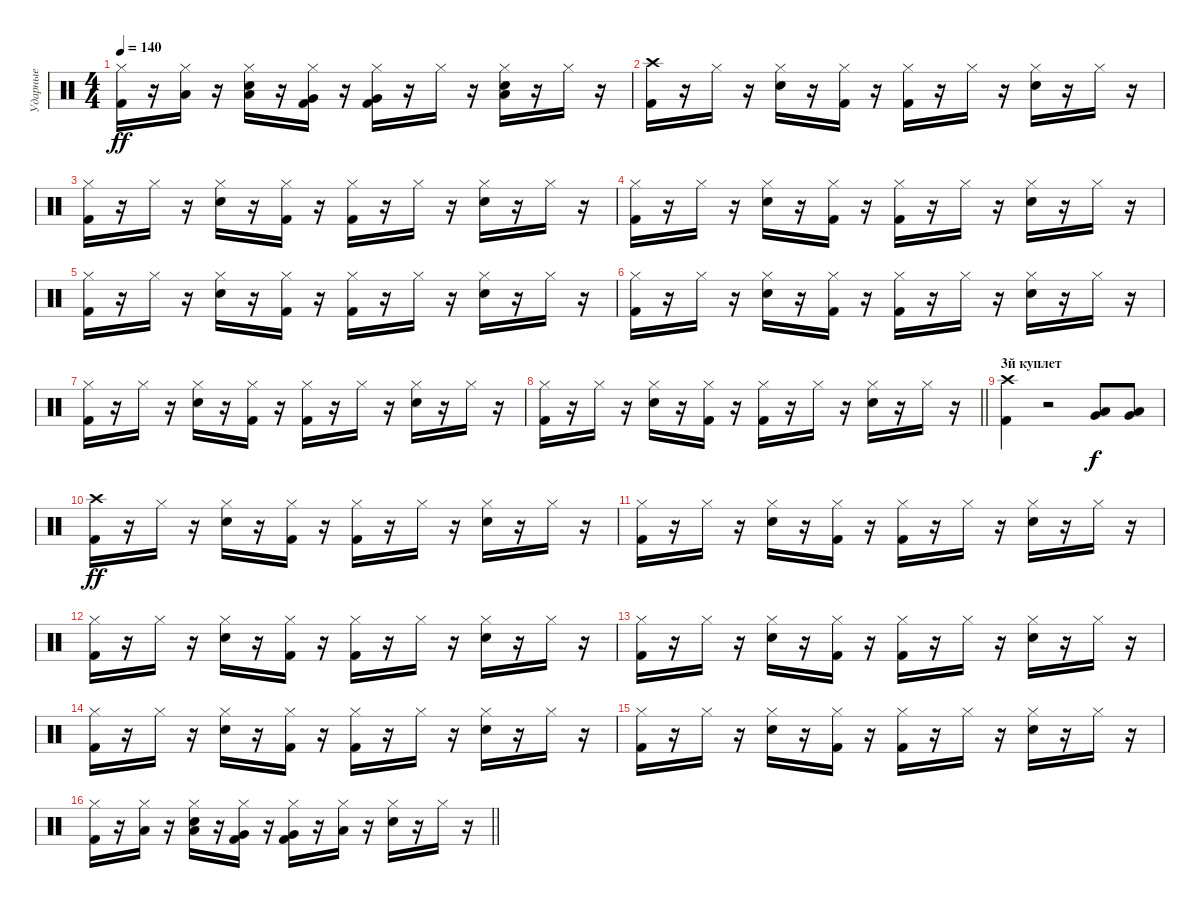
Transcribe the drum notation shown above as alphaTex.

\track ("Ударные" "Ударные") {instrument percussion}
\staff {score}
\articulation defaults
\ts (4 4)
\tempo 140
\clef neutral
\ks c
("Hi-Hat (closed)" "Kick (hit) 2").16{dy ff} r.16 ("Hi-Hat (closed)" "Low Tom (hit)").16 r.16 ("Hi-Hat (closed)" "Snare (hit) 2" "Low Tom (hit)").16 r.16 ("Hi-Hat (closed)" "Kick (hit) 2" "Very Low Tom (hit)").16 r.16 ("Hi-Hat (closed)" "Kick (hit) 2" "Very Low Tom (hit)").16 r.16 "Hi-Hat (closed)".16 r.16 ("Hi-Hat (closed)" "Snare (hit) 2" "Low Floor Tom (hit)").16 r.16 "Hi-Hat (closed)".16 r.16 |
("Crash high (hit)" "Kick (hit) 2").16 r.16 "Hi-Hat (closed)".16 r.16 ("Hi-Hat (closed)" "Snare (hit) 2").16 r.16 ("Hi-Hat (closed)" "Kick (hit) 2").16 r.16 ("Hi-Hat (closed)" "Kick (hit) 2").16 r.16 "Hi-Hat (closed)".16 r.16 ("Hi-Hat (closed)" "Snare (hit) 2").16 r.16 "Hi-Hat (closed)".16 r.16 |
("Hi-Hat (closed)" "Kick (hit) 2").16 r.16 "Hi-Hat (closed)".16 r.16 ("Hi-Hat (closed)" "Snare (hit) 2").16 r.16 ("Hi-Hat (closed)" "Kick (hit) 2").16 r.16 ("Hi-Hat (closed)" "Kick (hit) 2").16 r.16 "Hi-Hat (closed)".16 r.16 ("Hi-Hat (closed)" "Snare (hit) 2").16 r.16 "Hi-Hat (closed)".16 r.16 |
("Hi-Hat (closed)" "Kick (hit) 2").16 r.16 "Hi-Hat (closed)".16 r.16 ("Hi-Hat (closed)" "Snare (hit) 2").16 r.16 ("Hi-Hat (closed)" "Kick (hit) 2").16 r.16 ("Hi-Hat (closed)" "Kick (hit) 2").16 r.16 "Hi-Hat (closed)".16 r.16 ("Hi-Hat (closed)" "Snare (hit) 2").16 r.16 "Hi-Hat (closed)".16 r.16 |
("Hi-Hat (closed)" "Kick (hit) 2").16 r.16 "Hi-Hat (closed)".16 r.16 ("Hi-Hat (closed)" "Snare (hit) 2").16 r.16 ("Hi-Hat (closed)" "Kick (hit) 2").16 r.16 ("Hi-Hat (closed)" "Kick (hit) 2").16 r.16 "Hi-Hat (closed)".16 r.16 ("Hi-Hat (closed)" "Snare (hit) 2").16 r.16 "Hi-Hat (closed)".16 r.16 |
("Hi-Hat (closed)" "Kick (hit) 2").16 r.16 "Hi-Hat (closed)".16 r.16 ("Hi-Hat (closed)" "Snare (hit) 2").16 r.16 ("Hi-Hat (closed)" "Kick (hit) 2").16 r.16 ("Hi-Hat (closed)" "Kick (hit) 2").16 r.16 "Hi-Hat (closed)".16 r.16 ("Hi-Hat (closed)" "Snare (hit) 2").16 r.16 "Hi-Hat (closed)".16 r.16 |
("Hi-Hat (closed)" "Kick (hit) 2").16 r.16 "Hi-Hat (closed)".16 r.16 ("Hi-Hat (closed)" "Snare (hit) 2").16 r.16 ("Hi-Hat (closed)" "Kick (hit) 2").16 r.16 ("Hi-Hat (closed)" "Kick (hit) 2").16 r.16 "Hi-Hat (closed)".16 r.16 ("Hi-Hat (closed)" "Snare (hit) 2").16 r.16 "Hi-Hat (closed)".16 r.16 |
\barLineRight lightlight
("Hi-Hat (closed)" "Kick (hit) 2").16 r.16 "Hi-Hat (closed)".16 r.16 ("Hi-Hat (closed)" "Snare (hit) 2").16 r.16 ("Hi-Hat (closed)" "Kick (hit) 2").16 r.16 ("Hi-Hat (closed)" "Kick (hit) 2").16 r.16 "Hi-Hat (closed)".16 r.16 ("Hi-Hat (closed)" "Snare (hit) 2").16 r.16 "Hi-Hat (closed)".16 r.16 |
\section ("" "3й куплет")
("Crash high (hit)" "Kick (hit) 2").4 r.2 ("Very Low Tom (hit)" "Low Floor Tom (hit)").8{dy f} ("Very Low Tom (hit)" "Low Floor Tom (hit)").8 |
("Crash high (hit)" "Kick (hit) 2").16{dy ff} r.16 "Hi-Hat (closed)".16 r.16 ("Hi-Hat (closed)" "Snare (hit) 2").16 r.16 ("Hi-Hat (closed)" "Kick (hit) 2").16 r.16 ("Hi-Hat (closed)" "Kick (hit) 2").16 r.16 "Hi-Hat (closed)".16 r.16 ("Hi-Hat (closed)" "Snare (hit) 2").16 r.16 "Hi-Hat (closed)".16 r.16 |
("Hi-Hat (closed)" "Kick (hit) 2").16 r.16 "Hi-Hat (closed)".16 r.16 ("Hi-Hat (closed)" "Snare (hit) 2").16 r.16 ("Hi-Hat (closed)" "Kick (hit) 2").16 r.16 ("Hi-Hat (closed)" "Kick (hit) 2").16 r.16 "Hi-Hat (closed)".16 r.16 ("Hi-Hat (closed)" "Snare (hit) 2").16 r.16 "Hi-Hat (closed)".16 r.16 |
("Hi-Hat (closed)" "Kick (hit) 2").16 r.16 "Hi-Hat (closed)".16 r.16 ("Hi-Hat (closed)" "Snare (hit) 2").16 r.16 ("Hi-Hat (closed)" "Kick (hit) 2").16 r.16 ("Hi-Hat (closed)" "Kick (hit) 2").16 r.16 "Hi-Hat (closed)".16 r.16 ("Hi-Hat (closed)" "Snare (hit) 2").16 r.16 "Hi-Hat (closed)".16 r.16 |
("Hi-Hat (closed)" "Kick (hit) 2").16 r.16 "Hi-Hat (closed)".16 r.16 ("Hi-Hat (closed)" "Snare (hit) 2").16 r.16 ("Hi-Hat (closed)" "Kick (hit) 2").16 r.16 ("Hi-Hat (closed)" "Kick (hit) 2").16 r.16 "Hi-Hat (closed)".16 r.16 ("Hi-Hat (closed)" "Snare (hit) 2").16 r.16 "Hi-Hat (closed)".16 r.16 |
("Hi-Hat (closed)" "Kick (hit) 2").16 r.16 "Hi-Hat (closed)".16 r.16 ("Hi-Hat (closed)" "Snare (hit) 2").16 r.16 ("Hi-Hat (closed)" "Kick (hit) 2").16 r.16 ("Hi-Hat (closed)" "Kick (hit) 2").16 r.16 "Hi-Hat (closed)".16 r.16 ("Hi-Hat (closed)" "Snare (hit) 2").16 r.16 "Hi-Hat (closed)".16 r.16 |
("Hi-Hat (closed)" "Kick (hit) 2").16 r.16 "Hi-Hat (closed)".16 r.16 ("Hi-Hat (closed)" "Snare (hit) 2").16 r.16 ("Hi-Hat (closed)" "Kick (hit) 2").16 r.16 ("Hi-Hat (closed)" "Kick (hit) 2").16 r.16 "Hi-Hat (closed)".16 r.16 ("Hi-Hat (closed)" "Snare (hit) 2").16 r.16 "Hi-Hat (closed)".16 r.16 |
\barLineRight lightlight
("Hi-Hat (closed)" "Kick (hit) 2").16 r.16 ("Hi-Hat (closed)" "Low Tom (hit)").16 r.16 ("Hi-Hat (closed)" "Snare (hit) 2" "Low Tom (hit)").16 r.16 ("Hi-Hat (closed)" "Kick (hit) 2" "Very Low Tom (hit)").16 r.16 ("Hi-Hat (closed)" "Kick (hit) 2" "Very Low Tom (hit)").16 r.16 ("Hi-Hat (closed)" "Low Floor Tom (hit)").16 r.16 ("Hi-Hat (closed)" "Snare (hit) 2").16 r.16 "Hi-Hat (closed)".16 r.16
